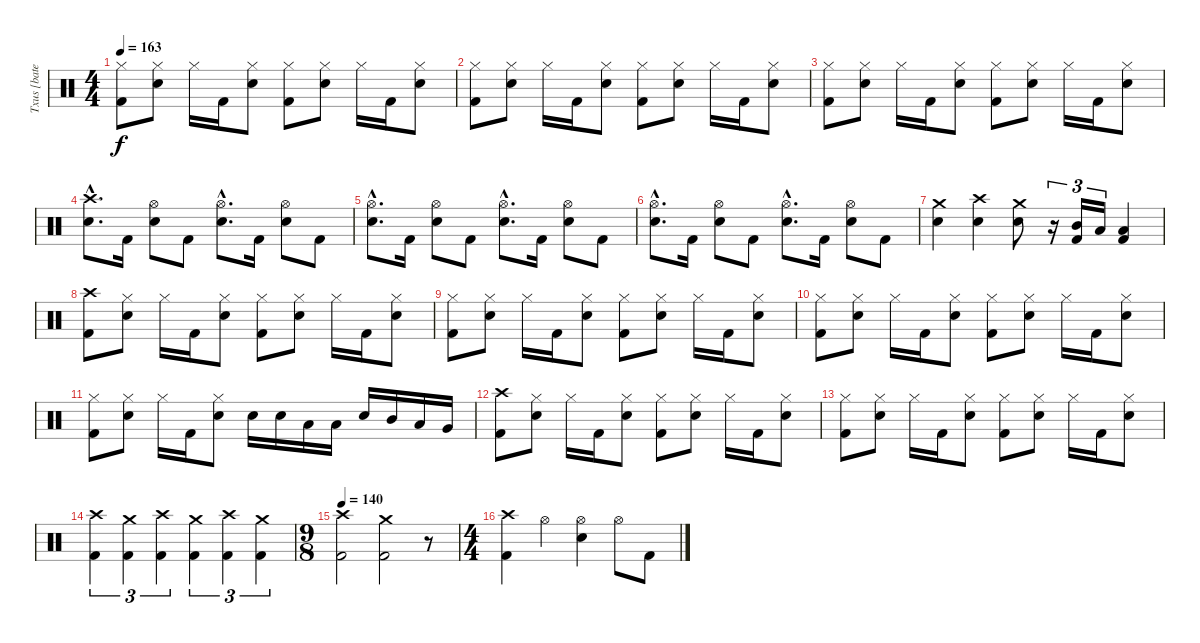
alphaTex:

\track ("Txus [bateria]" "Txus [bate") {instrument percussion}
\staff {score}
\articulation defaults
\ts (4 4)
\tempo 163
\clef neutral
\ks c
("Hi-Hat (closed)" "Kick (hit) 2").8{dy f} ("Hi-Hat (closed)" "Snare (hit) 2").8 "Hi-Hat (closed)".16 "Kick (hit) 2".16 ("Hi-Hat (closed)" "Snare (hit) 2").8 ("Hi-Hat (closed)" "Kick (hit) 2").8 ("Hi-Hat (closed)" "Snare (hit) 2").8 "Hi-Hat (closed)".16 "Kick (hit) 2".16 ("Hi-Hat (closed)" "Snare (hit) 2").8 |
("Hi-Hat (closed)" "Kick (hit) 2").8 ("Hi-Hat (closed)" "Snare (hit) 2").8 "Hi-Hat (closed)".16 "Kick (hit) 2".16 ("Hi-Hat (closed)" "Snare (hit) 2").8 ("Hi-Hat (closed)" "Kick (hit) 2").8 ("Hi-Hat (closed)" "Snare (hit) 2").8 "Hi-Hat (closed)".16 "Kick (hit) 2".16 ("Hi-Hat (closed)" "Snare (hit) 2").8 |
("Hi-Hat (closed)" "Kick (hit) 2").8 ("Hi-Hat (closed)" "Snare (hit) 2").8 "Hi-Hat (closed)".16 "Kick (hit) 2".16 ("Hi-Hat (closed)" "Snare (hit) 2").8 ("Hi-Hat (closed)" "Kick (hit) 2").8 ("Hi-Hat (closed)" "Snare (hit) 2").8 "Hi-Hat (closed)".16 "Kick (hit) 2".16 ("Hi-Hat (closed)" "Snare (hit) 2").8 |
("Crash high (hit)"{hac} "Snare (hit) 2"{hac}).8{d} "Kick (hit) 2".16 ("Hi-Hat (open)" "Snare (hit) 2").8 "Kick (hit) 2".8 ("Hi-Hat (open)"{hac} "Snare (hit) 2"{hac}).8{d} "Kick (hit) 2".16 ("Hi-Hat (open)" "Snare (hit) 2").8 "Kick (hit) 2".8 |
("Hi-Hat (open)"{hac} "Snare (hit) 2"{hac}).8{d} "Kick (hit) 2".16 ("Hi-Hat (open)" "Snare (hit) 2").8 "Kick (hit) 2".8 ("Hi-Hat (open)"{hac} "Snare (hit) 2"{hac}).8{d} "Kick (hit) 2".16 ("Hi-Hat (open)" "Snare (hit) 2").8 "Kick (hit) 2".8 |
("Hi-Hat (open)"{hac} "Snare (hit) 2"{hac}).8{d} "Kick (hit) 2".16 ("Hi-Hat (open)" "Snare (hit) 2").8 "Kick (hit) 2".8 ("Hi-Hat (open)"{hac} "Snare (hit) 2"{hac}).8{d} "Kick (hit) 2".16 ("Hi-Hat (open)" "Snare (hit) 2").8 "Kick (hit) 2".8 |
("Crash medium (hit)" "Snare (hit) 2").4 ("Crash high (hit)" "Snare (hit) 2").4 ("Crash medium (hit)" "Snare (hit) 2").8 r.16{tu (3 2)} ("Mid Tom (hit)" "Kick (hit) 2").16{tu (3 2)} "Low Tom (hit)".16{tu (3 2)} ("Low Floor Tom (hit)" "Kick (hit) 2").4 |
("Crash high (hit)" "Kick (hit) 2").8 ("Hi-Hat (closed)" "Snare (hit) 2").8 "Hi-Hat (closed)".16 "Kick (hit) 2".16 ("Hi-Hat (closed)" "Snare (hit) 2").8 ("Hi-Hat (closed)" "Kick (hit) 2").8 ("Hi-Hat (closed)" "Snare (hit) 2").8 "Hi-Hat (closed)".16 "Kick (hit) 2".16 ("Hi-Hat (closed)" "Snare (hit) 2").8 |
("Hi-Hat (closed)" "Kick (hit) 2").8 ("Hi-Hat (closed)" "Snare (hit) 2").8 "Hi-Hat (closed)".16 "Kick (hit) 2".16 ("Hi-Hat (closed)" "Snare (hit) 2").8 ("Hi-Hat (closed)" "Kick (hit) 2").8 ("Hi-Hat (closed)" "Snare (hit) 2").8 "Hi-Hat (closed)".16 "Kick (hit) 2".16 ("Hi-Hat (closed)" "Snare (hit) 2").8 |
("Hi-Hat (closed)" "Kick (hit) 2").8 ("Hi-Hat (closed)" "Snare (hit) 2").8 "Hi-Hat (closed)".16 "Kick (hit) 2".16 ("Hi-Hat (closed)" "Snare (hit) 2").8 ("Hi-Hat (closed)" "Kick (hit) 2").8 ("Hi-Hat (closed)" "Snare (hit) 2").8 "Hi-Hat (closed)".16 "Kick (hit) 2".16 ("Hi-Hat (closed)" "Snare (hit) 2").8 |
("Hi-Hat (closed)" "Kick (hit) 2").8 ("Hi-Hat (closed)" "Snare (hit) 2").8 "Hi-Hat (closed)".16 "Kick (hit) 2".16 ("Hi-Hat (closed)" "Snare (hit) 2").8 "Snare (hit) 2".16 "Snare (hit) 2".16 "Low Tom (hit)".16 "Low Tom (hit)".16 "Snare (hit) 2".16 "Mid Tom (hit)".16 "Low Tom (hit)".16 "Very Low Tom (hit)".16 |
("Crash high (hit)" "Kick (hit) 2").8 ("Hi-Hat (closed)" "Snare (hit) 2").8 "Hi-Hat (closed)".16 "Kick (hit) 2".16 ("Hi-Hat (closed)" "Snare (hit) 2").8 ("Hi-Hat (closed)" "Kick (hit) 2").8 ("Hi-Hat (closed)" "Snare (hit) 2").8 "Hi-Hat (closed)".16 "Kick (hit) 2".16 ("Hi-Hat (closed)" "Snare (hit) 2").8 |
("Hi-Hat (closed)" "Kick (hit) 2").8 ("Hi-Hat (closed)" "Snare (hit) 2").8 "Hi-Hat (closed)".16 "Kick (hit) 2".16 ("Hi-Hat (closed)" "Snare (hit) 2").8 ("Hi-Hat (closed)" "Kick (hit) 2").8 ("Hi-Hat (closed)" "Snare (hit) 2").8 "Hi-Hat (closed)".16 "Kick (hit) 2".16 ("Hi-Hat (closed)" "Snare (hit) 2").8 |
("Crash high (hit)" "Kick (hit) 2").4{tu (3 2)} ("Crash medium (hit)" "Kick (hit) 2").4{tu (3 2)} ("Crash high (hit)" "Kick (hit) 2").4{tu (3 2)} ("Crash medium (hit)" "Kick (hit) 2").4{tu (3 2)} ("Crash high (hit)" "Kick (hit) 2").4{tu (3 2)} ("Crash medium (hit)" "Kick (hit) 2").4{tu (3 2)} |
\ts (9 8)
\tempo 140
("Crash high (hit)" "Kick (hit) 2").2 ("Crash medium (hit)" "Kick (hit) 2").2 r.8 |
\ts (4 4)
("Crash high (hit)" "Kick (hit) 2").4 "Hi-Hat (open)".4 ("Hi-Hat (open)" "Snare (hit) 2").4 "Hi-Hat (open)".8 "Kick (hit) 2".8
